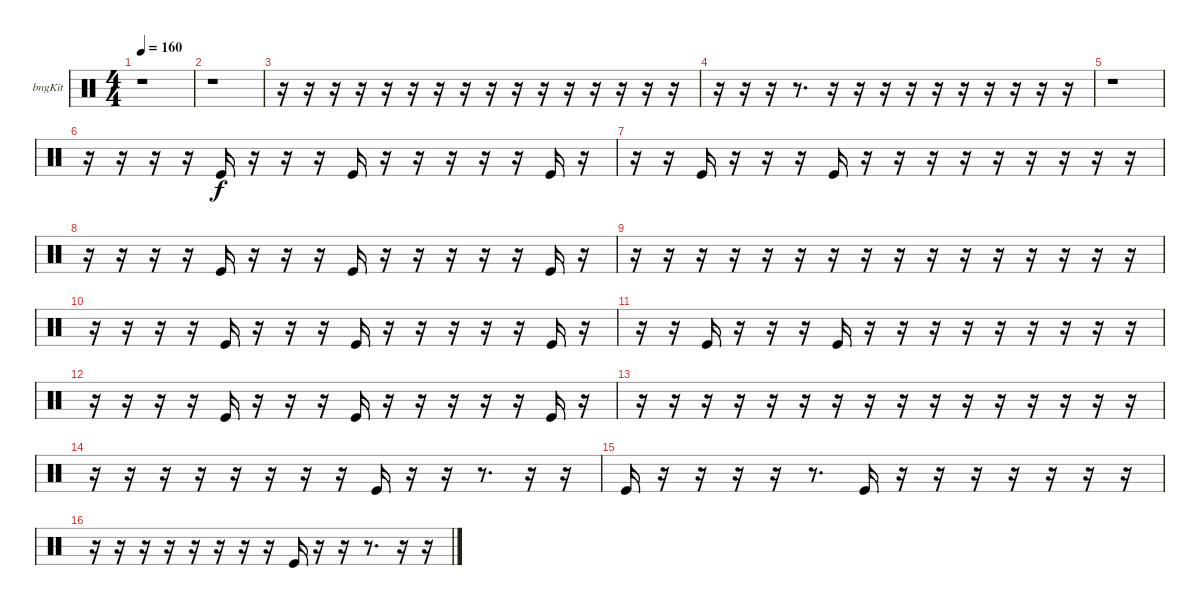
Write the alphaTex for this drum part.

\bracketExtendMode groupsimilarinstruments
\firstSystemTrackNameOrientation horizontal
\otherSystemsTrackNameOrientation horizontal
\track ("Bongos" "bngKit") {instrument percussion}
\staff {score}
\articulation defaults
\ts (4 4)
\tempo 160
\clef neutral
\ks c
r.1{dy f} |
r.1 |
r.16 r.16 r.16 r.16 r.16 r.16 r.16 r.16 r.16 r.16 r.16 r.16 r.16 r.16 r.16 r.16 |
r.16 r.16 r.16 r.8{d} r.16 r.16 r.16 r.16 r.16 r.16 r.16 r.16 r.16 r.16 |
r.1 |
r.16 r.16 r.16 r.16 "Kick (hit)".16 r.16 r.16 r.16 "Kick (hit)".16 r.16 r.16 r.16 r.16 r.16 "Kick (hit)".16 r.16 |
r.16 r.16 "Kick (hit)".16 r.16 r.16 r.16 "Kick (hit)".16 r.16 r.16 r.16 r.16 r.16 r.16 r.16 r.16 r.16 |
r.16 r.16 r.16 r.16 "Kick (hit)".16 r.16 r.16 r.16 "Kick (hit)".16 r.16 r.16 r.16 r.16 r.16 "Kick (hit)".16 r.16 |
r.16 r.16 r.16 r.16 r.16 r.16 r.16 r.16 r.16 r.16 r.16 r.16 r.16 r.16 r.16 r.16 |
r.16 r.16 r.16 r.16 "Kick (hit)".16 r.16 r.16 r.16 "Kick (hit)".16 r.16 r.16 r.16 r.16 r.16 "Kick (hit)".16 r.16 |
r.16 r.16 "Kick (hit)".16 r.16 r.16 r.16 "Kick (hit)".16 r.16 r.16 r.16 r.16 r.16 r.16 r.16 r.16 r.16 |
r.16 r.16 r.16 r.16 "Kick (hit)".16 r.16 r.16 r.16 "Kick (hit)".16 r.16 r.16 r.16 r.16 r.16 "Kick (hit)".16 r.16 |
r.16 r.16 r.16 r.16 r.16 r.16 r.16 r.16 r.16 r.16 r.16 r.16 r.16 r.16 r.16 r.16 |
r.16 r.16 r.16 r.16 r.16 r.16 r.16 r.16 "Kick (hit)".16 r.16 r.16 r.8{d} r.16 r.16 |
"Kick (hit)".16 r.16 r.16 r.16 r.16 r.8{d} "Kick (hit)".16 r.16 r.16 r.16 r.16 r.16 r.16 r.16 |
r.16 r.16 r.16 r.16 r.16 r.16 r.16 r.16 "Kick (hit)".16 r.16 r.16 r.8{d} r.16 r.16
